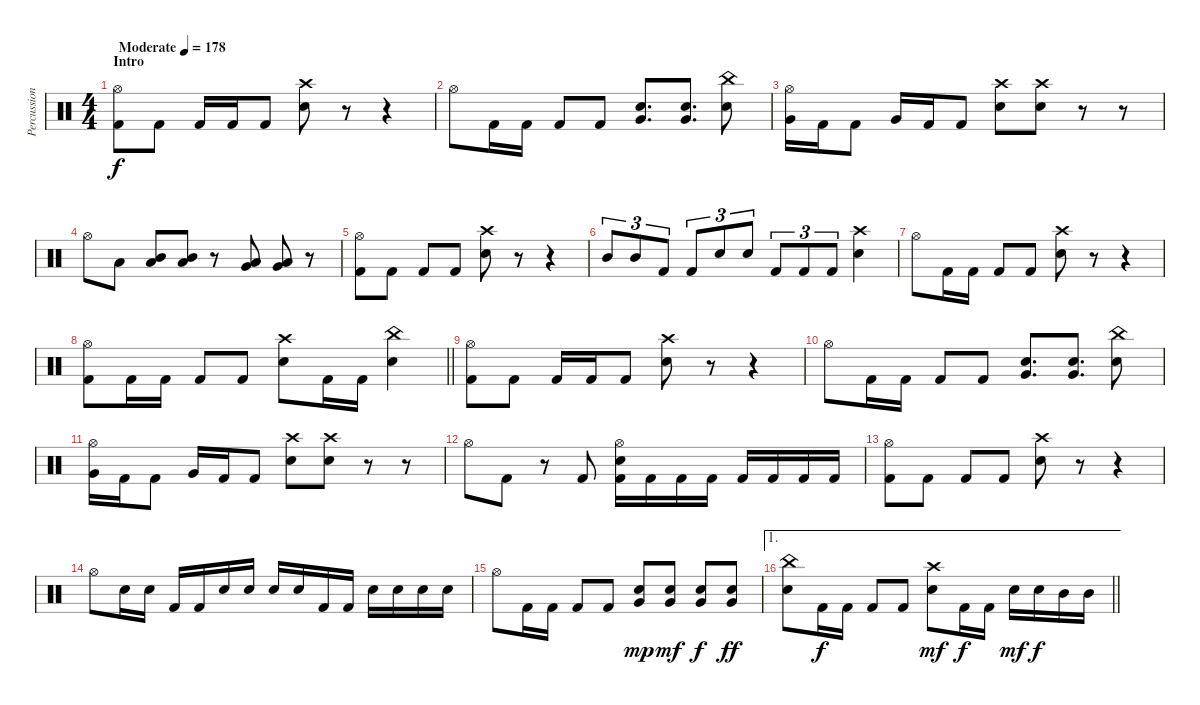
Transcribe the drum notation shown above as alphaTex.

\track ("Percussion" "Percussion") {instrument percussion}
\staff {score}
\articulation defaults
\ts (4 4)
\section ("" "Intro")
\tempo (178 "Moderate")
\clef neutral
\ks c
("Hi-Hat (open)" "Kick (hit) 2").8{dy f} "Kick (hit) 2".8 "Kick (hit) 2".16 "Kick (hit) 2".16 "Kick (hit) 2".8 ("Crash high (hit)" "Electric Snare (hit)").8 r.8 r.4 |
"Hi-Hat (open)".8 "Kick (hit) 2".16 "Kick (hit) 2".16 "Kick (hit) 2".8 "Kick (hit) 2".8 ("Electric Snare (hit)" "Very Low Tom (hit)").8{d} ("Electric Snare (hit)" "Very Low Tom (hit)").8{d} ("China (hit)" "Electric Snare (hit)").8 |
("Hi-Hat (open)" "Very Low Tom (hit)").16 "Kick (hit) 2".16 "Kick (hit) 2".8 "Very Low Tom (hit)".16 "Kick (hit) 2".16 "Kick (hit) 2".8 ("Crash high (hit)" "Electric Snare (hit)").8 ("Crash high (hit)" "Electric Snare (hit)").8 r.8 r.8 |
"Hi-Hat (open)".8 "Low Tom (hit)".8 ("Mid Tom (hit)" "Low Tom (hit)").8 ("Mid Tom (hit)" "Low Tom (hit)").8 r.8 ("Low Tom (hit)" "Very Low Tom (hit)").8 ("Low Tom (hit)" "Very Low Tom (hit)").8 r.8 |
("Hi-Hat (open)" "Kick (hit) 2").8 "Kick (hit) 2".8 "Kick (hit) 2".8 "Kick (hit) 2".8 ("Crash high (hit)" "Electric Snare (hit)").8 r.8 r.4 |
"Mid Tom (hit)".8{tu (3 2)} "Mid Tom (hit)".8{tu (3 2)} "Kick (hit) 2".8{tu (3 2)} "Kick (hit) 2".8{tu (3 2)} "Electric Snare (hit)".8{tu (3 2)} "Electric Snare (hit)".8{tu (3 2)} "Kick (hit) 2".8{tu (3 2)} "Kick (hit) 2".8{tu (3 2)} "Kick (hit) 2".8{tu (3 2)} ("Crash high (hit)" "Electric Snare (hit)").4 |
"Hi-Hat (open)".8 "Kick (hit) 2".16 "Kick (hit) 2".16 "Kick (hit) 2".8 "Kick (hit) 2".8 ("Crash high (hit)" "Electric Snare (hit)").8 r.8 r.4 |
\barLineRight lightlight
("Hi-Hat (open)" "Kick (hit) 2").8 "Kick (hit) 2".16 "Kick (hit) 2".16 "Kick (hit) 2".8 "Kick (hit) 2".8 ("Crash high (hit)" "Electric Snare (hit)").8 "Kick (hit) 2".16 "Kick (hit) 2".16 ("China (hit)" "Electric Snare (hit)").4 |
("Hi-Hat (open)" "Kick (hit) 2").8 "Kick (hit) 2".8 "Kick (hit) 2".16 "Kick (hit) 2".16 "Kick (hit) 2".8 ("Crash high (hit)" "Electric Snare (hit)").8 r.8 r.4 |
"Hi-Hat (open)".8 "Kick (hit) 2".16 "Kick (hit) 2".16 "Kick (hit) 2".8 "Kick (hit) 2".8 ("Electric Snare (hit)" "Very Low Tom (hit)").8{d} ("Electric Snare (hit)" "Very Low Tom (hit)").8{d} ("China (hit)" "Electric Snare (hit)").8 |
("Hi-Hat (open)" "Very Low Tom (hit)").16 "Kick (hit) 2".16 "Kick (hit) 2".8 "Very Low Tom (hit)".16 "Kick (hit) 2".16 "Kick (hit) 2".8 ("Crash high (hit)" "Electric Snare (hit)").8 ("Crash high (hit)" "Electric Snare (hit)").8 r.8 r.8 |
"Hi-Hat (open)".8 "Kick (hit) 2".8 r.8 "Kick (hit) 2".8 ("Hi-Hat (open)" "Electric Snare (hit)" "Kick (hit) 2").16 "Kick (hit) 2".16 "Kick (hit) 2".16 "Kick (hit) 2".16 "Kick (hit) 2".16 "Kick (hit) 2".16 "Kick (hit) 2".16 "Kick (hit) 2".16 |
("Hi-Hat (open)" "Kick (hit) 2").8 "Kick (hit) 2".8 "Kick (hit) 2".8 "Kick (hit) 2".8 ("Crash high (hit)" "Electric Snare (hit)").8 r.8 r.4 |
"Hi-Hat (open)".8 "Electric Snare (hit)".16 "Electric Snare (hit)".16 "Kick (hit) 2".16 "Kick (hit) 2".16 "Electric Snare (hit)".16 "Electric Snare (hit)".16 "Electric Snare (hit)".16 "Electric Snare (hit)".16 "Kick (hit) 2".16 "Kick (hit) 2".16 "Electric Snare (hit)".16 "Electric Snare (hit)".16 "Electric Snare (hit)".16 "Electric Snare (hit)".16 |
"Hi-Hat (open)".8 "Kick (hit) 2".16 "Kick (hit) 2".16 "Kick (hit) 2".8 "Kick (hit) 2".8 ("Electric Snare (hit)" "Very Low Tom (hit)").8{dy mp} ("Electric Snare (hit)" "Very Low Tom (hit)").8{dy mf} ("Electric Snare (hit)" "Very Low Tom (hit)").8{dy f} ("Electric Snare (hit)" "Very Low Tom (hit)").8{dy ff} |
\ae 1
\barLineRight lightlight
("China (hit)" "Electric Snare (hit)").8 "Kick (hit) 2".16{dy f} "Kick (hit) 2".16 "Kick (hit) 2".8 "Kick (hit) 2".8 ("Crash high (hit)" "Electric Snare (hit)").8{dy mf} "Kick (hit) 2".16{dy f} "Kick (hit) 2".16 "Electric Snare (hit)".16{dy mf} "Electric Snare (hit)".16{dy f} "Mid Tom (hit)".16 "Mid Tom (hit)".16
